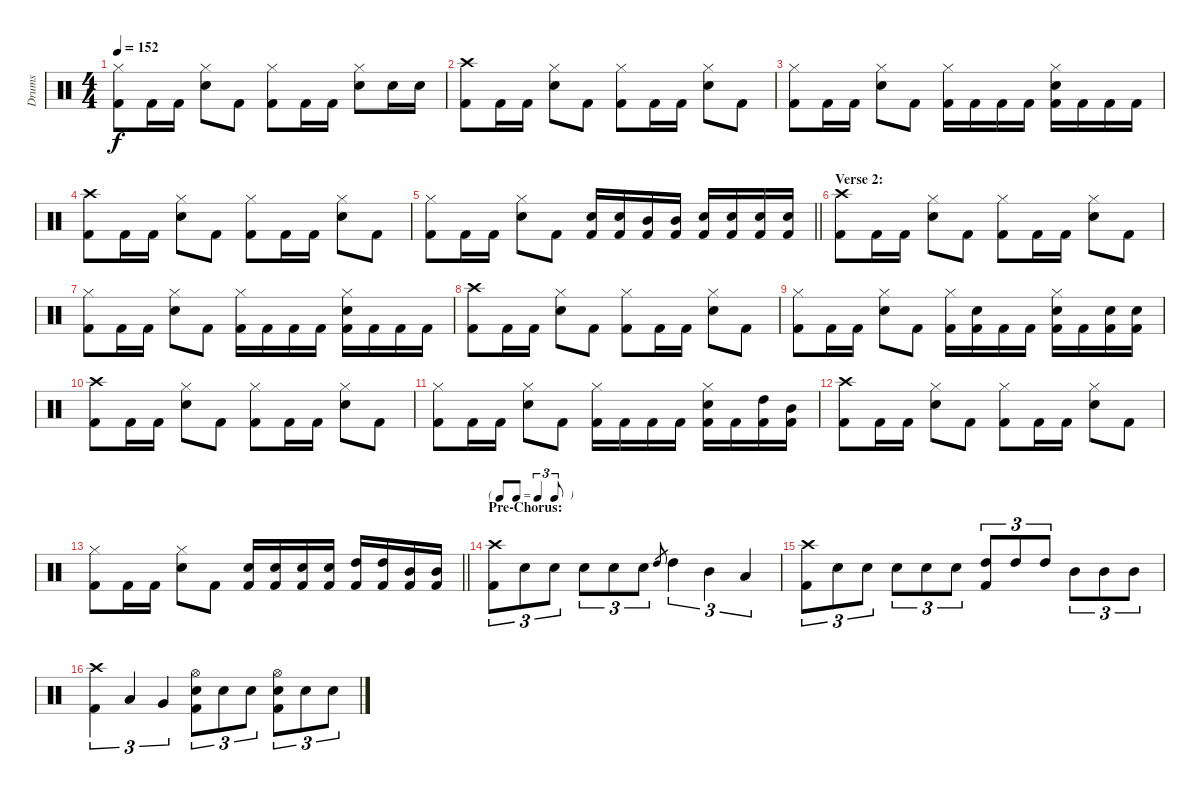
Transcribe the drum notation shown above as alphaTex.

\track ("Drums" "Drums") {instrument percussion}
\staff {score}
\articulation defaults
\ts (4 4)
\tempo 152
\clef neutral
\ks c
("Hi-Hat (closed)" "Kick (hit) 2").8{dy f} "Kick (hit) 2".16 "Kick (hit) 2".16 ("Hi-Hat (closed)" "Snare (hit) 2").8 "Kick (hit) 2".8 ("Hi-Hat (closed)" "Kick (hit) 2").8 "Kick (hit) 2".16 "Kick (hit) 2".16 ("Hi-Hat (closed)" "Snare (hit) 2").8 "Snare (hit) 2".16 "Snare (hit) 2".16 |
("Crash high (hit)" "Kick (hit) 2").8 "Kick (hit) 2".16 "Kick (hit) 2".16 ("Hi-Hat (closed)" "Snare (hit) 2").8 "Kick (hit) 2".8 ("Hi-Hat (closed)" "Kick (hit) 2").8 "Kick (hit) 2".16 "Kick (hit) 2".16 ("Hi-Hat (closed)" "Snare (hit) 2").8 "Kick (hit) 2".8 |
("Hi-Hat (closed)" "Kick (hit) 2").8 "Kick (hit) 2".16 "Kick (hit) 2".16 ("Hi-Hat (closed)" "Snare (hit) 2").8 "Kick (hit) 2".8 ("Hi-Hat (closed)" "Kick (hit) 2").16 "Kick (hit) 2".16 "Kick (hit) 2".16 "Kick (hit) 2".16 ("Hi-Hat (closed)" "Snare (hit) 2" "Kick (hit) 2").16 "Kick (hit) 2".16 "Kick (hit) 2".16 "Kick (hit) 2".16 |
("Crash high (hit)" "Kick (hit) 2").8 "Kick (hit) 2".16 "Kick (hit) 2".16 ("Hi-Hat (closed)" "Snare (hit) 2").8 "Kick (hit) 2".8 ("Hi-Hat (closed)" "Kick (hit) 2").8 "Kick (hit) 2".16 "Kick (hit) 2".16 ("Hi-Hat (closed)" "Snare (hit) 2").8 "Kick (hit) 2".8 |
\barLineRight lightlight
("Hi-Hat (closed)" "Kick (hit) 2").8 "Kick (hit) 2".16 "Kick (hit) 2".16 ("Hi-Hat (closed)" "Snare (hit) 2").8 "Kick (hit) 2".8 ("Snare (hit) 2" "Kick (hit) 2").16 ("Snare (hit) 2" "Kick (hit) 2").16 ("Mid Tom (hit)" "Kick (hit) 2").16 ("Mid Tom (hit)" "Kick (hit) 2").16 ("Snare (hit) 2" "Kick (hit) 2").16 ("Snare (hit) 2" "Kick (hit) 2").16 ("Snare (hit) 2" "Kick (hit) 2").16 ("Snare (hit) 2" "Kick (hit) 2").16 |
\section ("" "Verse 2:")
("Crash high (hit)" "Kick (hit) 2").8 "Kick (hit) 2".16 "Kick (hit) 2".16 ("Hi-Hat (closed)" "Snare (hit) 2").8 "Kick (hit) 2".8 ("Hi-Hat (closed)" "Kick (hit) 2").8 "Kick (hit) 2".16 "Kick (hit) 2".16 ("Hi-Hat (closed)" "Snare (hit) 2").8 "Kick (hit) 2".8 |
("Hi-Hat (closed)" "Kick (hit) 2").8 "Kick (hit) 2".16 "Kick (hit) 2".16 ("Hi-Hat (closed)" "Snare (hit) 2").8 "Kick (hit) 2".8 ("Hi-Hat (closed)" "Kick (hit) 2").16 "Kick (hit) 2".16 "Kick (hit) 2".16 "Kick (hit) 2".16 ("Hi-Hat (closed)" "Snare (hit) 2" "Kick (hit) 2").16 "Kick (hit) 2".16 "Kick (hit) 2".16 "Kick (hit) 2".16 |
("Crash high (hit)" "Kick (hit) 2").8 "Kick (hit) 2".16 "Kick (hit) 2".16 ("Hi-Hat (closed)" "Snare (hit) 2").8 "Kick (hit) 2".8 ("Hi-Hat (closed)" "Kick (hit) 2").8 "Kick (hit) 2".16 "Kick (hit) 2".16 ("Hi-Hat (closed)" "Snare (hit) 2").8 "Kick (hit) 2".8 |
("Hi-Hat (closed)" "Kick (hit) 2").8 "Kick (hit) 2".16 "Kick (hit) 2".16 ("Hi-Hat (closed)" "Snare (hit) 2").8 "Kick (hit) 2".8 ("Hi-Hat (closed)" "Kick (hit) 2").16 ("Snare (hit) 2" "Kick (hit) 2").16 "Kick (hit) 2".16 "Kick (hit) 2".16 ("Hi-Hat (closed)" "Snare (hit) 2" "Kick (hit) 2").16 "Kick (hit) 2".16 ("Snare (hit) 2" "Kick (hit) 2").16 ("Snare (hit) 2" "Kick (hit) 2").16 |
("Crash high (hit)" "Kick (hit) 2").8 "Kick (hit) 2".16 "Kick (hit) 2".16 ("Hi-Hat (closed)" "Snare (hit) 2").8 "Kick (hit) 2".8 ("Hi-Hat (closed)" "Kick (hit) 2").8 "Kick (hit) 2".16 "Kick (hit) 2".16 ("Hi-Hat (closed)" "Snare (hit) 2").8 "Kick (hit) 2".8 |
("Hi-Hat (closed)" "Kick (hit) 2").8 "Kick (hit) 2".16 "Kick (hit) 2".16 ("Hi-Hat (closed)" "Snare (hit) 2").8 "Kick (hit) 2".8 ("Hi-Hat (closed)" "Kick (hit) 2").16 "Kick (hit) 2".16 "Kick (hit) 2".16 "Kick (hit) 2".16 ("Hi-Hat (closed)" "Snare (hit) 2" "Kick (hit) 2").16 "Kick (hit) 2".16 ("High Tom (hit)" "Kick (hit) 2").16 ("Mid Tom (hit)" "Kick (hit) 2").16 |
("Crash high (hit)" "Kick (hit) 2").8 "Kick (hit) 2".16 "Kick (hit) 2".16 ("Hi-Hat (closed)" "Snare (hit) 2").8 "Kick (hit) 2".8 ("Hi-Hat (closed)" "Kick (hit) 2").8 "Kick (hit) 2".16 "Kick (hit) 2".16 ("Hi-Hat (closed)" "Snare (hit) 2").8 "Kick (hit) 2".8 |
\barLineRight lightlight
("Hi-Hat (closed)" "Kick (hit) 2").8 "Kick (hit) 2".16 "Kick (hit) 2".16 ("Hi-Hat (closed)" "Snare (hit) 2").8 "Kick (hit) 2".8 ("Snare (hit) 2" "Kick (hit) 2").16 ("Snare (hit) 2" "Kick (hit) 2").16 ("Snare (hit) 2" "Kick (hit) 2").16 ("Snare (hit) 2" "Kick (hit) 2").16 ("High Tom (hit)" "Kick (hit) 2").16 ("High Tom (hit)" "Kick (hit) 2").16 ("Mid Tom (hit)" "Kick (hit) 2").16 ("Mid Tom (hit)" "Kick (hit) 2").16 |
\tf triplet8th
\section ("" "Pre-Chorus:")
("Crash high (hit)" "Kick (hit) 2").8{tu (3 2)} "Snare (hit) 2".8{tu (3 2)} "Snare (hit) 2".8{tu (3 2)} "Snare (hit) 2".8{tu (3 2)} "Snare (hit) 2".8{tu (3 2)} "Snare (hit) 2".8{tu (3 2)} "High Tom (hit)".8{gr} "High Tom (hit)".4{tu (3 2)} "Mid Tom (hit)".4{tu (3 2)} "Low Tom (hit)".4{tu (3 2)} |
("Crash high (hit)" "Kick (hit) 2").8{tu (3 2)} "Snare (hit) 2".8{tu (3 2)} "Snare (hit) 2".8{tu (3 2)} "Snare (hit) 2".8{tu (3 2)} "Snare (hit) 2".8{tu (3 2)} "Snare (hit) 2".8{tu (3 2)} ("High Tom (hit)" "Kick (hit) 2").8{tu (3 2)} "High Tom (hit)".8{tu (3 2)} "High Tom (hit)".8{tu (3 2)} "Mid Tom (hit)".8{tu (3 2)} "Mid Tom (hit)".8{tu (3 2)} "Mid Tom (hit)".8{tu (3 2)} |
("Crash high (hit)" "Kick (hit) 2").4{tu (3 2)} "Low Tom (hit)".4{tu (3 2)} "Very Low Tom (hit)".4{tu (3 2)} ("Hi-Hat (open)" "Snare (hit) 2" "Kick (hit) 2").8{tu (3 2)} "Snare (hit) 2".8{tu (3 2)} "Snare (hit) 2".8{tu (3 2)} ("Hi-Hat (open)" "Snare (hit) 2" "Kick (hit) 2").8{tu (3 2)} "Snare (hit) 2".8{tu (3 2)} "Snare (hit) 2".8{tu (3 2)}
